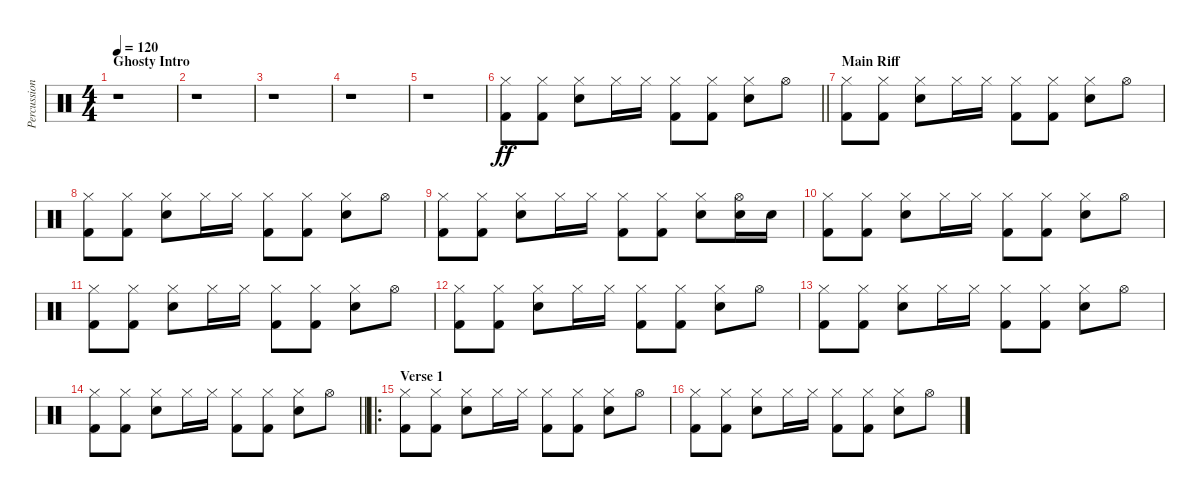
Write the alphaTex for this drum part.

\track ("Percussion" "Percussion") {instrument percussion}
\staff {score}
\articulation defaults
\ts (4 4)
\section ("" "Ghosty Intro")
\tempo 120
\clef neutral
\ks c
r.1{dy ff} |
r.1 |
r.1 |
r.1 |
r.1 |
\barLineRight lightlight
("Hi-Hat (closed)" "Kick (hit) 2").8 ("Kick (hit) 2" "Hi-Hat (closed)").8 ("Snare (hit) 2" "Hi-Hat (closed)").8 "Hi-Hat (closed)".16 "Hi-Hat (closed)".16 ("Kick (hit) 2" "Hi-Hat (closed)").8 ("Hi-Hat (closed)" "Kick (hit) 2").8 ("Hi-Hat (closed)" "Snare (hit) 2").8 "Hi-Hat (open)".8 |
\section ("" "Main Riff")
("Kick (hit) 2" "Hi-Hat (closed)").8 ("Hi-Hat (closed)" "Kick (hit) 2").8 ("Snare (hit) 2" "Hi-Hat (closed)").8 "Hi-Hat (closed)".16 "Hi-Hat (closed)".16 ("Hi-Hat (closed)" "Kick (hit) 2").8 ("Kick (hit) 2" "Hi-Hat (closed)").8 ("Hi-Hat (closed)" "Snare (hit) 2").8 "Hi-Hat (open)".8 |
("Hi-Hat (closed)" "Kick (hit) 2").8 ("Hi-Hat (closed)" "Kick (hit) 2").8 ("Hi-Hat (closed)" "Snare (hit) 2").8 "Hi-Hat (closed)".16 "Hi-Hat (closed)".16 ("Hi-Hat (closed)" "Kick (hit) 2").8 ("Hi-Hat (closed)" "Kick (hit) 2").8 ("Hi-Hat (closed)" "Snare (hit) 2").8 "Hi-Hat (open)".8 |
("Hi-Hat (closed)" "Kick (hit) 2").8 ("Hi-Hat (closed)" "Kick (hit) 2").8 ("Hi-Hat (closed)" "Snare (hit) 2").8 "Hi-Hat (closed)".16 "Hi-Hat (closed)".16 ("Hi-Hat (closed)" "Kick (hit) 2").8 ("Hi-Hat (closed)" "Kick (hit) 2").8 ("Hi-Hat (closed)" "Snare (hit) 2").8 ("Snare (hit) 2" "Hi-Hat (open)").16 "Snare (hit) 2".16 |
("Hi-Hat (closed)" "Kick (hit) 2").8 ("Hi-Hat (closed)" "Kick (hit) 2").8 ("Hi-Hat (closed)" "Snare (hit) 2").8 "Hi-Hat (closed)".16 "Hi-Hat (closed)".16 ("Kick (hit) 2" "Hi-Hat (closed)").8 ("Hi-Hat (closed)" "Kick (hit) 2").8 ("Snare (hit) 2" "Hi-Hat (closed)").8 "Hi-Hat (open)".8 |
("Hi-Hat (closed)" "Kick (hit) 2").8 ("Hi-Hat (closed)" "Kick (hit) 2").8 ("Hi-Hat (closed)" "Snare (hit) 2").8 "Hi-Hat (closed)".16 "Hi-Hat (closed)".16 ("Kick (hit) 2" "Hi-Hat (closed)").8 ("Hi-Hat (closed)" "Kick (hit) 2").8 ("Hi-Hat (closed)" "Snare (hit) 2").8 "Hi-Hat (open)".8 |
("Hi-Hat (closed)" "Kick (hit) 2").8 ("Kick (hit) 2" "Hi-Hat (closed)").8 ("Hi-Hat (closed)" "Snare (hit) 2").8 "Hi-Hat (closed)".16 "Hi-Hat (closed)".16 ("Kick (hit) 2" "Hi-Hat (closed)").8 ("Hi-Hat (closed)" "Kick (hit) 2").8 ("Snare (hit) 2" "Hi-Hat (closed)").8 "Hi-Hat (open)".8 |
("Hi-Hat (closed)" "Kick (hit) 2").8 ("Hi-Hat (closed)" "Kick (hit) 2").8 ("Hi-Hat (closed)" "Snare (hit) 2").8 "Hi-Hat (closed)".16 "Hi-Hat (closed)".16 ("Hi-Hat (closed)" "Kick (hit) 2").8 ("Hi-Hat (closed)" "Kick (hit) 2").8 ("Hi-Hat (closed)" "Snare (hit) 2").8 "Hi-Hat (open)".8 |
\barLineRight lightlight
("Hi-Hat (closed)" "Kick (hit) 2").8 ("Hi-Hat (closed)" "Kick (hit) 2").8 ("Snare (hit) 2" "Hi-Hat (closed)").8 "Hi-Hat (closed)".16 "Hi-Hat (closed)".16 ("Kick (hit) 2" "Hi-Hat (closed)").8 ("Kick (hit) 2" "Hi-Hat (closed)").8 ("Snare (hit) 2" "Hi-Hat (closed)").8 "Hi-Hat (open)".8 |
\ro
\section ("" "Verse 1")
("Hi-Hat (closed)" "Kick (hit) 2").8 ("Hi-Hat (closed)" "Kick (hit) 2").8 ("Hi-Hat (closed)" "Snare (hit) 2").8 "Hi-Hat (closed)".16 "Hi-Hat (closed)".16 ("Hi-Hat (closed)" "Kick (hit) 2").8 ("Kick (hit) 2" "Hi-Hat (closed)").8 ("Hi-Hat (closed)" "Snare (hit) 2").8 "Hi-Hat (open)".8 |
("Hi-Hat (closed)" "Kick (hit) 2").8 ("Hi-Hat (closed)" "Kick (hit) 2").8 ("Snare (hit) 2" "Hi-Hat (closed)").8 "Hi-Hat (closed)".16 "Hi-Hat (closed)".16 ("Hi-Hat (closed)" "Kick (hit) 2").8 ("Kick (hit) 2" "Hi-Hat (closed)").8 ("Snare (hit) 2" "Hi-Hat (closed)").8 "Hi-Hat (open)".8
